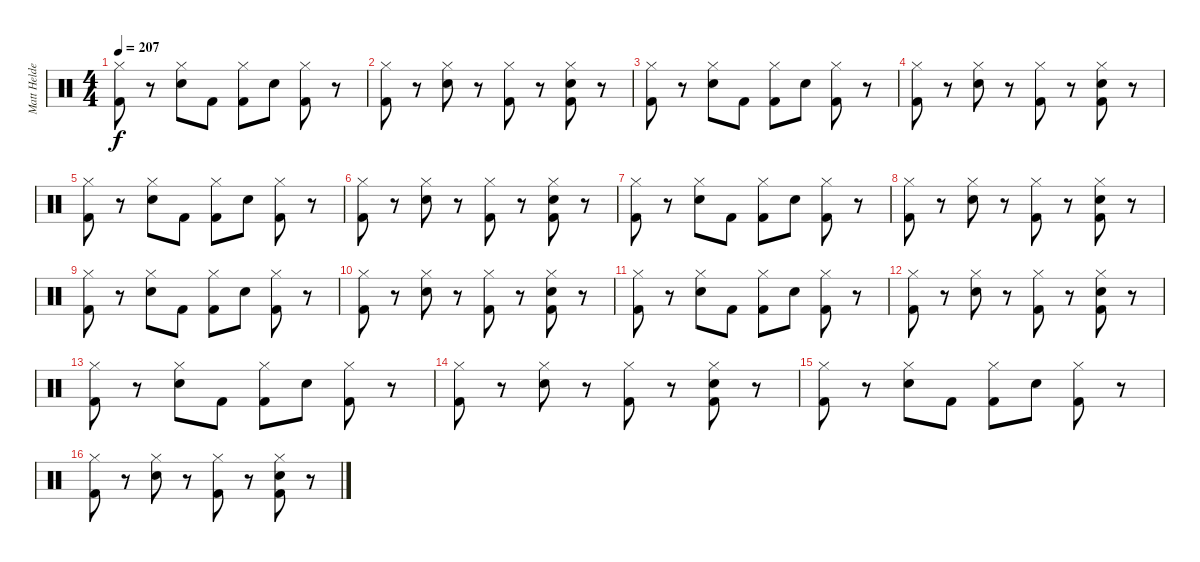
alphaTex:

\track ("Matt Helders - Drums" "Matt Helde") {instrument percussion}
\staff {score}
\articulation defaults
\ts (4 4)
\tempo 207
\clef neutral
\ks c
("Hi-Hat (closed)" "Kick (hit) 2").8{dy f} r.8 ("Hi-Hat (closed)" "Electric Snare (hit)").8 "Kick (hit) 2".8 ("Hi-Hat (closed)" "Kick (hit) 2").8 "Electric Snare (hit)".8 ("Hi-Hat (closed)" "Kick (hit) 2").8 r.8 |
("Hi-Hat (closed)" "Kick (hit) 2").8 r.8 ("Hi-Hat (closed)" "Electric Snare (hit)").8 r.8 ("Hi-Hat (closed)" "Kick (hit) 2").8 r.8 ("Hi-Hat (closed)" "Electric Snare (hit)" "Kick (hit) 2").8 r.8 |
("Hi-Hat (closed)" "Kick (hit) 2").8 r.8 ("Hi-Hat (closed)" "Electric Snare (hit)").8 "Kick (hit) 2".8 ("Hi-Hat (closed)" "Kick (hit) 2").8 "Electric Snare (hit)".8 ("Hi-Hat (closed)" "Kick (hit) 2").8 r.8 |
("Hi-Hat (closed)" "Kick (hit) 2").8 r.8 ("Hi-Hat (closed)" "Electric Snare (hit)").8 r.8 ("Hi-Hat (closed)" "Kick (hit) 2").8 r.8 ("Hi-Hat (closed)" "Electric Snare (hit)" "Kick (hit) 2").8 r.8 |
("Hi-Hat (closed)" "Kick (hit) 2").8 r.8 ("Hi-Hat (closed)" "Electric Snare (hit)").8 "Kick (hit) 2".8 ("Hi-Hat (closed)" "Kick (hit) 2").8 "Electric Snare (hit)".8 ("Hi-Hat (closed)" "Kick (hit) 2").8 r.8 |
("Hi-Hat (closed)" "Kick (hit) 2").8 r.8 ("Hi-Hat (closed)" "Electric Snare (hit)").8 r.8 ("Hi-Hat (closed)" "Kick (hit) 2").8 r.8 ("Hi-Hat (closed)" "Electric Snare (hit)" "Kick (hit) 2").8 r.8 |
("Hi-Hat (closed)" "Kick (hit) 2").8 r.8 ("Hi-Hat (closed)" "Electric Snare (hit)").8 "Kick (hit) 2".8 ("Hi-Hat (closed)" "Kick (hit) 2").8 "Electric Snare (hit)".8 ("Hi-Hat (closed)" "Kick (hit) 2").8 r.8 |
("Hi-Hat (closed)" "Kick (hit) 2").8 r.8 ("Hi-Hat (closed)" "Electric Snare (hit)").8 r.8 ("Hi-Hat (closed)" "Kick (hit) 2").8 r.8 ("Hi-Hat (closed)" "Electric Snare (hit)" "Kick (hit) 2").8 r.8 |
("Hi-Hat (closed)" "Kick (hit) 2").8 r.8 ("Hi-Hat (closed)" "Electric Snare (hit)").8 "Kick (hit) 2".8 ("Hi-Hat (closed)" "Kick (hit) 2").8 "Electric Snare (hit)".8 ("Hi-Hat (closed)" "Kick (hit) 2").8 r.8 |
("Hi-Hat (closed)" "Kick (hit) 2").8 r.8 ("Hi-Hat (closed)" "Electric Snare (hit)").8 r.8 ("Hi-Hat (closed)" "Kick (hit) 2").8 r.8 ("Hi-Hat (closed)" "Electric Snare (hit)" "Kick (hit) 2").8 r.8 |
("Hi-Hat (closed)" "Kick (hit) 2").8 r.8 ("Hi-Hat (closed)" "Electric Snare (hit)").8 "Kick (hit) 2".8 ("Hi-Hat (closed)" "Kick (hit) 2").8 "Electric Snare (hit)".8 ("Hi-Hat (closed)" "Kick (hit) 2").8 r.8 |
("Hi-Hat (closed)" "Kick (hit) 2").8 r.8 ("Hi-Hat (closed)" "Electric Snare (hit)").8 r.8 ("Hi-Hat (closed)" "Kick (hit) 2").8 r.8 ("Hi-Hat (closed)" "Electric Snare (hit)" "Kick (hit) 2").8 r.8 |
("Hi-Hat (closed)" "Kick (hit) 2").8 r.8 ("Hi-Hat (closed)" "Electric Snare (hit)").8 "Kick (hit) 2".8 ("Hi-Hat (closed)" "Kick (hit) 2").8 "Electric Snare (hit)".8 ("Hi-Hat (closed)" "Kick (hit) 2").8 r.8 |
("Hi-Hat (closed)" "Kick (hit) 2").8 r.8 ("Hi-Hat (closed)" "Electric Snare (hit)").8 r.8 ("Hi-Hat (closed)" "Kick (hit) 2").8 r.8 ("Hi-Hat (closed)" "Electric Snare (hit)" "Kick (hit) 2").8 r.8 |
("Hi-Hat (closed)" "Kick (hit) 2").8 r.8 ("Hi-Hat (closed)" "Electric Snare (hit)").8 "Kick (hit) 2".8 ("Hi-Hat (closed)" "Kick (hit) 2").8 "Electric Snare (hit)".8 ("Hi-Hat (closed)" "Kick (hit) 2").8 r.8 |
("Hi-Hat (closed)" "Kick (hit) 2").8 r.8 ("Hi-Hat (closed)" "Electric Snare (hit)").8 r.8 ("Hi-Hat (closed)" "Kick (hit) 2").8 r.8 ("Hi-Hat (closed)" "Electric Snare (hit)" "Kick (hit) 2").8 r.8
